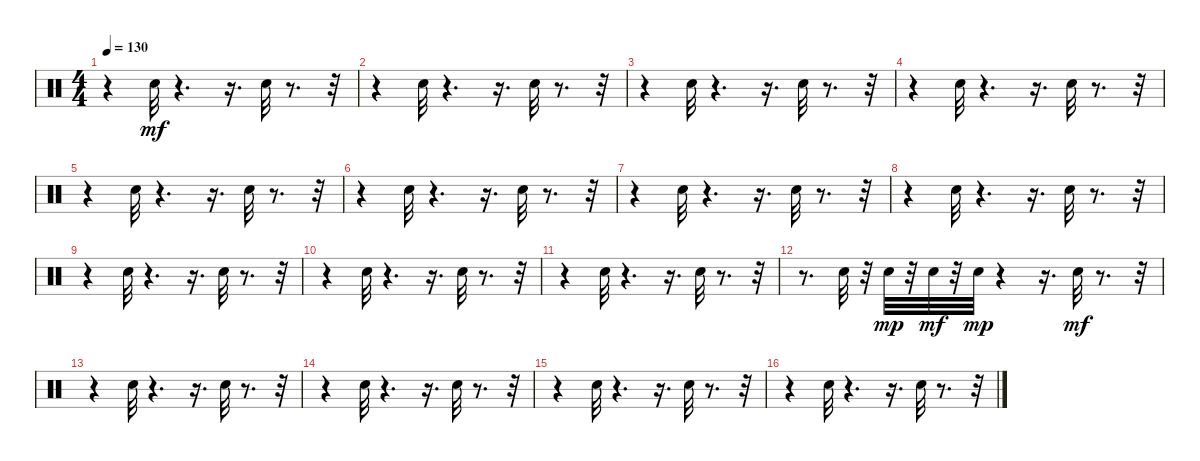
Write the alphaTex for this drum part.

\track "" {instrument percussion}
\staff {score}
\articulation defaults
\ts (4 4)
\tempo 130
\clef neutral
\ks c
r.4{dy mf} "Electric Snare (hit)".32 r.4{d} r.16{d} "Electric Snare (hit)".32 r.8{d} r.32 |
r.4 "Electric Snare (hit)".32 r.4{d} r.16{d} "Electric Snare (hit)".32 r.8{d} r.32 |
r.4 "Electric Snare (hit)".32 r.4{d} r.16{d} "Electric Snare (hit)".32 r.8{d} r.32 |
r.4 "Electric Snare (hit)".32 r.4{d} r.16{d} "Electric Snare (hit)".32 r.8{d} r.32 |
r.4 "Electric Snare (hit)".32 r.4{d} r.16{d} "Electric Snare (hit)".32 r.8{d} r.32 |
r.4 "Electric Snare (hit)".32 r.4{d} r.16{d} "Electric Snare (hit)".32 r.8{d} r.32 |
r.4 "Electric Snare (hit)".32 r.4{d} r.16{d} "Electric Snare (hit)".32 r.8{d} r.32 |
r.4 "Electric Snare (hit)".32 r.4{d} r.16{d} "Electric Snare (hit)".32 r.8{d} r.32 |
r.4 "Electric Snare (hit)".32 r.4{d} r.16{d} "Electric Snare (hit)".32 r.8{d} r.32 |
r.4 "Electric Snare (hit)".32 r.4{d} r.16{d} "Electric Snare (hit)".32 r.8{d} r.32 |
r.4 "Electric Snare (hit)".32 r.4{d} r.16{d} "Electric Snare (hit)".32 r.8{d} r.32 |
r.8{d} "Electric Snare (hit)".32 r.32 "Electric Snare (hit)".32{dy mp} r.32 "Electric Snare (hit)".32{dy mf} r.32 "Electric Snare (hit)".32{dy mp} r.4 r.16{d} "Electric Snare (hit)".32{dy mf} r.8{d} r.32 |
r.4 "Electric Snare (hit)".32 r.4{d} r.16{d} "Electric Snare (hit)".32 r.8{d} r.32 |
r.4 "Electric Snare (hit)".32 r.4{d} r.16{d} "Electric Snare (hit)".32 r.8{d} r.32 |
r.4 "Electric Snare (hit)".32 r.4{d} r.16{d} "Electric Snare (hit)".32 r.8{d} r.32 |
r.4 "Electric Snare (hit)".32 r.4{d} r.16{d} "Electric Snare (hit)".32 r.8{d} r.32
